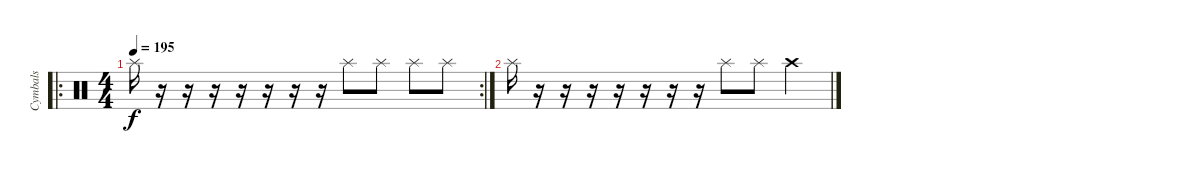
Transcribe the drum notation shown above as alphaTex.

\track ("Cymbals" "Cymbals") {instrument percussion}
\staff {score}
\articulation defaults
\ro
\rc 2
\ts (4 4)
\tempo 195
\clef neutral
\ks c "Splash (hit)".16{dy f}
r.16 r.16 r.16 r.16 r.16 r.16 r.16 "Splash (hit)".8 "Splash (hit)".8 "Splash (hit)".8 "Splash (hit)".8 |
"Splash (hit)".16 r.16 r.16 r.16 r.16 r.16 r.16 r.16 "Splash (hit)".8 "Splash (hit)".8 "Crash high (hit)".4
